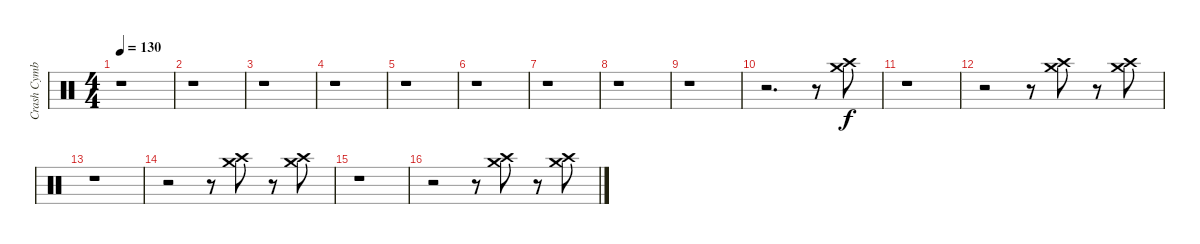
\track ("Crash Cymbal" "Crash Cymb") {instrument percussion}
\staff {score}
\articulation defaults
\ts (4 4)
\tempo 130
\clef neutral
\ks c
r.1{dy f} |
r.1 |
r.1 |
r.1 |
r.1 |
r.1 |
r.1 |
r.1 |
r.1 |
r.2{d} r.8 ("Crash high (hit)" "Crash medium (hit)").8 |
r.1 |
r.2 r.8 ("Crash high (hit)" "Crash medium (hit)").8 r.8 ("Crash high (hit)" "Crash medium (hit)").8 |
r.1 |
r.2 r.8 ("Crash high (hit)" "Crash medium (hit)").8 r.8 ("Crash high (hit)" "Crash medium (hit)").8 |
r.1 |
r.2 r.8 ("Crash high (hit)" "Crash medium (hit)").8 r.8 ("Crash high (hit)" "Crash medium (hit)").8
